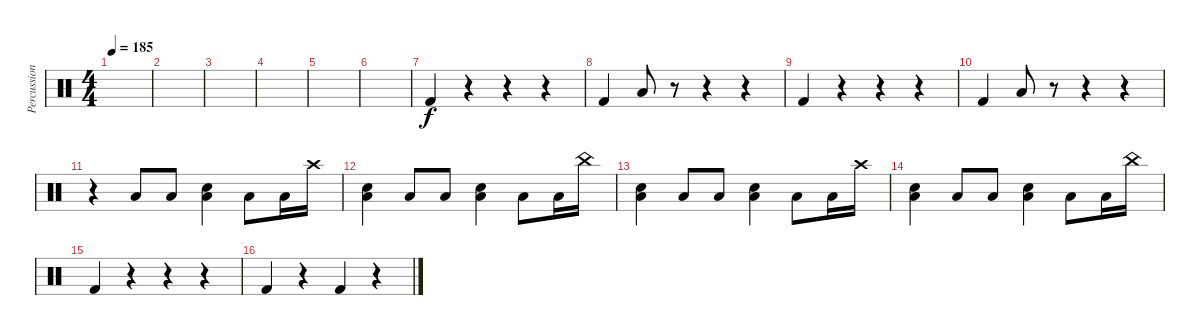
\track ("Percussions" "Percussion") {instrument percussion}
\staff {score}
\articulation defaults
\ts (4 4)
\tempo 185
\clef neutral
\ks c
|
|
|
|
|
|
"Kick (hit) 2".4 r.4 r.4 r.4 |
"Kick (hit) 2".4 "Low Tom (hit)".8 r.8 r.4 r.4 |
"Kick (hit) 2".4 r.4 r.4 r.4 |
"Kick (hit) 2".4 "Low Tom (hit)".8 r.8 r.4 r.4 |
r.4 "Low Tom (hit)".8 "Low Tom (hit)".8 ("Electric Snare (hit)" "Low Tom (hit)").4 "Low Tom (hit)".8 "Low Tom (hit)".16 "Crash high (hit)".16 |
("Electric Snare (hit)" "Low Tom (hit)").4 "Low Tom (hit)".8 "Low Tom (hit)".8 ("Electric Snare (hit)" "Low Tom (hit)").4 "Low Tom (hit)".8 "Low Tom (hit)".16 "China (hit)".16 |
("Electric Snare (hit)" "Low Tom (hit)").4 "Low Tom (hit)".8 "Low Tom (hit)".8 ("Electric Snare (hit)" "Low Tom (hit)").4 "Low Tom (hit)".8 "Low Tom (hit)".16 "Crash high (hit)".16 |
("Electric Snare (hit)" "Low Tom (hit)").4 "Low Tom (hit)".8 "Low Tom (hit)".8 ("Electric Snare (hit)" "Low Tom (hit)").4 "Low Tom (hit)".8 "Low Tom (hit)".16 "China (hit)".16 |
"Kick (hit) 2".4 r.4 r.4 r.4 |
"Kick (hit) 2".4 r.4 "Kick (hit) 2".4 r.4
